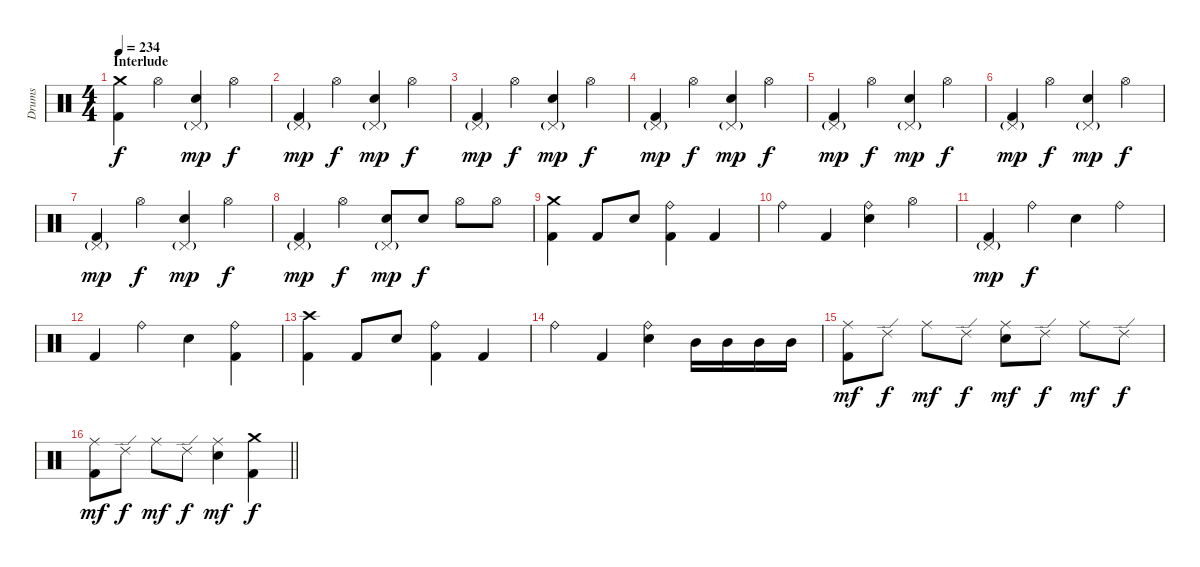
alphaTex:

\track ("Drums" "Drums") {instrument percussion}
\staff {score}
\articulation defaults
\ts (4 4)
\section ("" "Interlude")
\tempo 234
\clef neutral
\ks c
("Crash medium (hit)" "Kick (hit) 2").4{dy f} "Hi-Hat (open)".4 ("Pedal Hi-Hat (hit)"{g} "Snare (hit) 2").4{dy mp} "Hi-Hat (open)".4{dy f} |
("Pedal Hi-Hat (hit)"{g} "Kick (hit) 2").4{dy mp} "Hi-Hat (open)".4{dy f} ("Pedal Hi-Hat (hit)"{g} "Snare (hit) 2").4{dy mp} "Hi-Hat (open)".4{dy f} |
("Pedal Hi-Hat (hit)"{g} "Kick (hit) 2").4{dy mp} "Hi-Hat (open)".4{dy f} ("Pedal Hi-Hat (hit)"{g} "Snare (hit) 2").4{dy mp} "Hi-Hat (open)".4{dy f} |
("Pedal Hi-Hat (hit)"{g} "Kick (hit) 2").4{dy mp} "Hi-Hat (open)".4{dy f} ("Pedal Hi-Hat (hit)"{g} "Snare (hit) 2").4{dy mp} "Hi-Hat (open)".4{dy f} |
("Pedal Hi-Hat (hit)"{g} "Kick (hit) 2").4{dy mp} "Hi-Hat (open)".4{dy f} ("Pedal Hi-Hat (hit)"{g} "Snare (hit) 2").4{dy mp} "Hi-Hat (open)".4{dy f} |
("Pedal Hi-Hat (hit)"{g} "Kick (hit) 2").4{dy mp} "Hi-Hat (open)".4{dy f} ("Pedal Hi-Hat (hit)"{g} "Snare (hit) 2").4{dy mp} "Hi-Hat (open)".4{dy f} |
("Pedal Hi-Hat (hit)"{g} "Kick (hit) 2").4{dy mp} "Hi-Hat (open)".4{dy f} ("Pedal Hi-Hat (hit)"{g} "Snare (hit) 2").4{dy mp} "Hi-Hat (open)".4{dy f} |
("Pedal Hi-Hat (hit)"{g} "Kick (hit) 2").4{dy mp} "Hi-Hat (open)".4{dy f} ("Pedal Hi-Hat (hit)"{g} "Snare (hit) 2").8{dy mp} "Snare (hit) 2".8{dy f} "Hi-Hat (open)".8 "Hi-Hat (open)".8 |
("Crash medium (hit)" "Kick (hit) 2").4 "Kick (hit) 2".8 "Snare (hit) 2".8 ("Ride (bell)" "Kick (hit) 2").4 "Kick (hit) 2".4 |
"Ride (bell)".4 "Kick (hit) 2".4 ("Ride (bell)" "Snare (hit) 2").4 "Hi-Hat (open)".4 |
("Pedal Hi-Hat (hit)"{g} "Kick (hit) 2").4{dy mp} "Ride (bell)".4{dy f} "Snare (hit) 2".4 "Ride (bell)".4 |
"Kick (hit) 2".4 "Ride (bell)".4 "Snare (hit) 2".4 ("Ride (bell)" "Kick (hit) 2").4 |
("Crash high (hit)" "Kick (hit) 2").4 "Kick (hit) 2".8 "Snare (hit) 2".8 ("Ride (bell)" "Kick (hit) 2").4 "Kick (hit) 2".4 |
"Ride (bell)".4 "Kick (hit) 2".4 ("Ride (bell)" "Snare (hit) 2").4 "Mid Tom (hit)".16 "Mid Tom (hit)".16 "Mid Tom (hit)".16 "Mid Tom (hit)".16 |
("Ride (middle)" "Kick (hit) 2").8{dy mf} "Ride (edge) 2".8{dy f} "Ride (middle)".8{dy mf} "Ride (edge) 2".8{dy f} ("Ride (middle)" "Snare (hit) 2").8{dy mf} "Ride (edge) 2".8{dy f} "Ride (middle)".8{dy mf} "Ride (edge) 2".8{dy f} |
\barLineRight lightlight
("Ride (middle)" "Kick (hit) 2").8{dy mf} "Ride (edge) 2".8{dy f} "Ride (middle)".8{dy mf} "Ride (edge) 2".8{dy f} ("Ride (middle)" "Snare (hit) 2").4{dy mf} ("Crash medium (hit)" "Kick (hit) 2").4{dy f}
